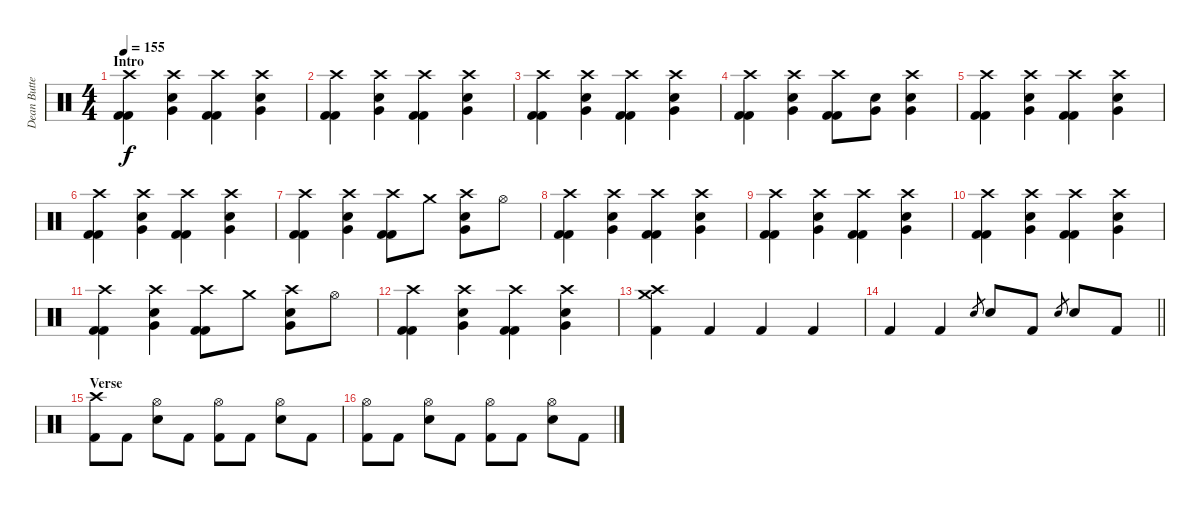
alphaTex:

\track ("Dean Butterworth [Drums]" "Dean Butte") {solo instrument percussion}
\staff {score}
\articulation defaults
\ts (4 4)
\section ("" "Intro")
\tempo 155
\clef neutral
\ks c
("Crash high (hit)" "Kick (hit) 2" "Kick (hit) 2").4{dy f} ("Crash high (hit)" "Very Low Tom (hit)" "Electric Snare (hit)").4 ("Crash high (hit)" "Kick (hit) 2" "Kick (hit) 2").4 ("Crash high (hit)" "Very Low Tom (hit)" "Electric Snare (hit)").4 |
("Crash high (hit)" "Kick (hit) 2" "Kick (hit) 2").4 ("Crash high (hit)" "Very Low Tom (hit)" "Electric Snare (hit)").4 ("Crash high (hit)" "Kick (hit) 2" "Kick (hit) 2").4 ("Crash high (hit)" "Very Low Tom (hit)" "Electric Snare (hit)").4 |
("Crash high (hit)" "Kick (hit) 2" "Kick (hit) 2").4 ("Crash high (hit)" "Very Low Tom (hit)" "Electric Snare (hit)").4 ("Crash high (hit)" "Kick (hit) 2" "Kick (hit) 2").4 ("Crash high (hit)" "Very Low Tom (hit)" "Electric Snare (hit)").4 |
("Crash high (hit)" "Kick (hit) 2" "Kick (hit) 2").4 ("Crash high (hit)" "Very Low Tom (hit)" "Electric Snare (hit)").4 ("Crash high (hit)" "Kick (hit) 2" "Kick (hit) 2").8 ("Very Low Tom (hit)" "Electric Snare (hit)").8 ("Crash high (hit)" "Very Low Tom (hit)" "Electric Snare (hit)").4 |
("Crash high (hit)" "Kick (hit) 2" "Kick (hit) 2").4 ("Crash high (hit)" "Very Low Tom (hit)" "Electric Snare (hit)").4 ("Crash high (hit)" "Kick (hit) 2" "Kick (hit) 2").4 ("Crash high (hit)" "Very Low Tom (hit)" "Electric Snare (hit)").4 |
("Crash high (hit)" "Kick (hit) 2" "Kick (hit) 2").4 ("Crash high (hit)" "Very Low Tom (hit)" "Electric Snare (hit)").4 ("Crash high (hit)" "Kick (hit) 2" "Kick (hit) 2").4 ("Crash high (hit)" "Very Low Tom (hit)" "Electric Snare (hit)").4 |
("Crash high (hit)" "Kick (hit) 2" "Kick (hit) 2").4 ("Crash high (hit)" "Very Low Tom (hit)" "Electric Snare (hit)").4 ("Crash high (hit)" "Kick (hit) 2" "Kick (hit) 2").8 "Crash medium (hit)".8 ("Crash high (hit)" "Very Low Tom (hit)" "Electric Snare (hit)").8 "Hi-Hat (open)".8 |
("Crash high (hit)" "Kick (hit) 2" "Kick (hit) 2").4 ("Crash high (hit)" "Very Low Tom (hit)" "Electric Snare (hit)").4 ("Crash high (hit)" "Kick (hit) 2" "Kick (hit) 2").4 ("Crash high (hit)" "Very Low Tom (hit)" "Electric Snare (hit)").4 |
("Crash high (hit)" "Kick (hit) 2" "Kick (hit) 2").4 ("Crash high (hit)" "Very Low Tom (hit)" "Electric Snare (hit)").4 ("Crash high (hit)" "Kick (hit) 2" "Kick (hit) 2").4 ("Crash high (hit)" "Very Low Tom (hit)" "Electric Snare (hit)").4 |
("Crash high (hit)" "Kick (hit) 2" "Kick (hit) 2").4 ("Crash high (hit)" "Very Low Tom (hit)" "Electric Snare (hit)").4 ("Crash high (hit)" "Kick (hit) 2" "Kick (hit) 2").4 ("Crash high (hit)" "Very Low Tom (hit)" "Electric Snare (hit)").4 |
("Crash high (hit)" "Kick (hit) 2" "Kick (hit) 2").4 ("Crash high (hit)" "Very Low Tom (hit)" "Electric Snare (hit)").4 ("Crash high (hit)" "Kick (hit) 2" "Kick (hit) 2").8 "Crash medium (hit)".8 ("Crash high (hit)" "Very Low Tom (hit)" "Electric Snare (hit)").8 "Hi-Hat (open)".8 |
("Crash high (hit)" "Kick (hit) 2" "Kick (hit) 2").4 ("Crash high (hit)" "Very Low Tom (hit)" "Electric Snare (hit)").4 ("Crash high (hit)" "Kick (hit) 2" "Kick (hit) 2").4 ("Crash high (hit)" "Very Low Tom (hit)" "Electric Snare (hit)").4 |
("Crash high (hit)" "Crash medium (hit)" "Kick (hit) 2").4 "Kick (hit) 2".4 "Kick (hit) 2".4 "Kick (hit) 2".4 |
\barLineRight lightlight "Kick (hit) 2".4 "Kick (hit) 2".4 "Electric Snare (hit)".8{gr} "Electric Snare (hit)".8 "Kick (hit) 2".8 "Electric Snare (hit)".8{gr} "Electric Snare (hit)".8 "Kick (hit) 2".8
|
\section ("" "Verse")
("Crash high (hit)" "Kick (hit) 2").8 "Kick (hit) 2".8 ("Hi-Hat (open)" "Electric Snare (hit)").8 "Kick (hit) 2".8 ("Hi-Hat (open)" "Kick (hit) 2").8 "Kick (hit) 2".8 ("Hi-Hat (open)" "Electric Snare (hit)").8 "Kick (hit) 2".8 |
("Hi-Hat (open)" "Kick (hit) 2").8 "Kick (hit) 2".8 ("Hi-Hat (open)" "Electric Snare (hit)").8 "Kick (hit) 2".8 ("Hi-Hat (open)" "Kick (hit) 2").8 "Kick (hit) 2".8 ("Hi-Hat (open)" "Electric Snare (hit)").8 "Kick (hit) 2".8
